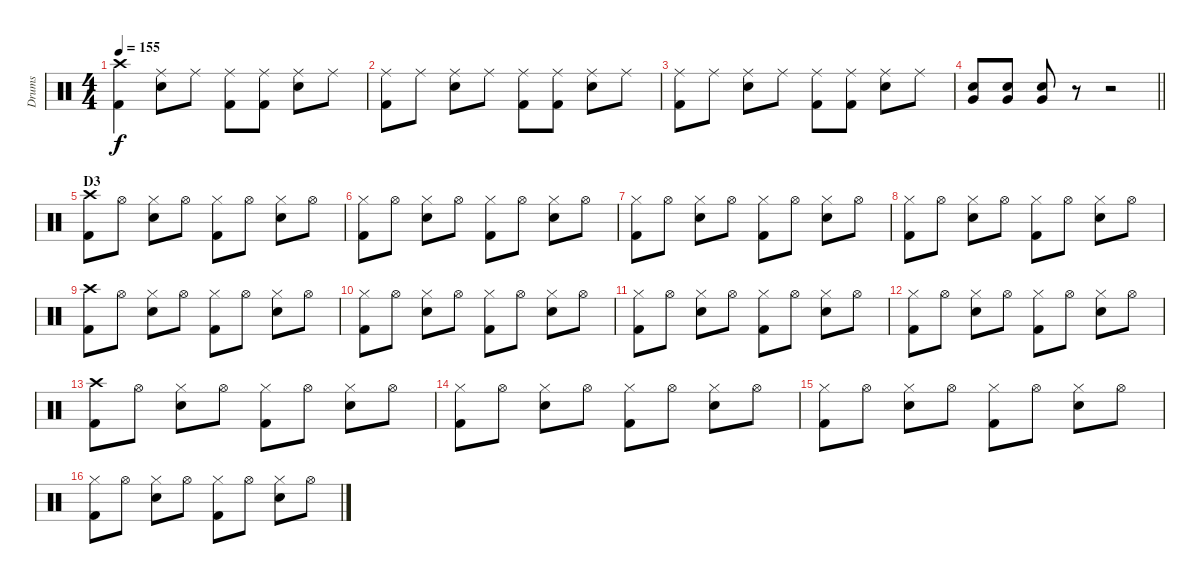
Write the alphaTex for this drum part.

\track ("Drums" "Drums") {instrument percussion}
\staff {score}
\articulation defaults
\ts (4 4)
\tempo 155
\clef neutral
\ks c
("Crash high (hit)" "Kick (hit) 2").4{dy f} ("Ride (middle)" "Snare (hit) 2").8 "Ride (middle)".8 ("Ride (middle)" "Kick (hit) 2").8 ("Ride (middle)" "Kick (hit) 2").8 ("Ride (middle)" "Snare (hit) 2").8 "Ride (middle)".8 |
("Ride (middle)" "Kick (hit) 2").8 "Ride (middle)".8 ("Ride (middle)" "Snare (hit) 2").8 "Ride (middle)".8 ("Ride (middle)" "Kick (hit) 2").8 ("Ride (middle)" "Kick (hit) 2").8 ("Ride (middle)" "Snare (hit) 2").8 "Ride (middle)".8 |
("Ride (middle)" "Kick (hit) 2").8 "Ride (middle)".8 ("Ride (middle)" "Snare (hit) 2").8 "Ride (middle)".8 ("Ride (middle)" "Kick (hit) 2").8 ("Ride (middle)" "Kick (hit) 2").8 ("Ride (middle)" "Snare (hit) 2").8 "Ride (middle)".8 |
\barLineRight lightlight
("Snare (hit) 2" "Very Low Tom (hit)").8 ("Snare (hit) 2" "Very Low Tom (hit)").8 ("Snare (hit) 2" "Very Low Tom (hit)").8 r.8 r.2 |
\section ("" "D3")
("Crash high (hit)" "Kick (hit) 2").8 "Hi-Hat (open)".8 ("Hi-Hat (closed)" "Snare (hit) 2").8 "Hi-Hat (open)".8 ("Hi-Hat (closed)" "Kick (hit) 2").8 "Hi-Hat (open)".8 ("Hi-Hat (closed)" "Snare (hit) 2").8 "Hi-Hat (open)".8 |
("Hi-Hat (closed)" "Kick (hit) 2").8 "Hi-Hat (open)".8 ("Hi-Hat (closed)" "Snare (hit) 2").8 "Hi-Hat (open)".8 ("Hi-Hat (closed)" "Kick (hit) 2").8 "Hi-Hat (open)".8 ("Hi-Hat (closed)" "Snare (hit) 2").8 "Hi-Hat (open)".8 |
("Hi-Hat (closed)" "Kick (hit) 2").8 "Hi-Hat (open)".8 ("Hi-Hat (closed)" "Snare (hit) 2").8 "Hi-Hat (open)".8 ("Hi-Hat (closed)" "Kick (hit) 2").8 "Hi-Hat (open)".8 ("Hi-Hat (closed)" "Snare (hit) 2").8 "Hi-Hat (open)".8 |
("Hi-Hat (closed)" "Kick (hit) 2").8 "Hi-Hat (open)".8 ("Hi-Hat (closed)" "Snare (hit) 2").8 "Hi-Hat (open)".8 ("Hi-Hat (closed)" "Kick (hit) 2").8 "Hi-Hat (open)".8 ("Hi-Hat (closed)" "Snare (hit) 2").8 "Hi-Hat (open)".8 |
("Crash high (hit)" "Kick (hit) 2").8 "Hi-Hat (open)".8 ("Hi-Hat (closed)" "Snare (hit) 2").8 "Hi-Hat (open)".8 ("Hi-Hat (closed)" "Kick (hit) 2").8 "Hi-Hat (open)".8 ("Hi-Hat (closed)" "Snare (hit) 2").8 "Hi-Hat (open)".8 |
("Hi-Hat (closed)" "Kick (hit) 2").8 "Hi-Hat (open)".8 ("Hi-Hat (closed)" "Snare (hit) 2").8 "Hi-Hat (open)".8 ("Hi-Hat (closed)" "Kick (hit) 2").8 "Hi-Hat (open)".8 ("Hi-Hat (closed)" "Snare (hit) 2").8 "Hi-Hat (open)".8 |
("Hi-Hat (closed)" "Kick (hit) 2").8 "Hi-Hat (open)".8 ("Hi-Hat (closed)" "Snare (hit) 2").8 "Hi-Hat (open)".8 ("Hi-Hat (closed)" "Kick (hit) 2").8 "Hi-Hat (open)".8 ("Hi-Hat (closed)" "Snare (hit) 2").8 "Hi-Hat (open)".8 |
("Hi-Hat (closed)" "Kick (hit) 2").8 "Hi-Hat (open)".8 ("Hi-Hat (closed)" "Snare (hit) 2").8 "Hi-Hat (open)".8 ("Hi-Hat (closed)" "Kick (hit) 2").8 "Hi-Hat (open)".8 ("Hi-Hat (closed)" "Snare (hit) 2").8 "Hi-Hat (open)".8 |
("Crash high (hit)" "Kick (hit) 2").8 "Hi-Hat (open)".8 ("Hi-Hat (closed)" "Snare (hit) 2").8 "Hi-Hat (open)".8 ("Hi-Hat (closed)" "Kick (hit) 2").8 "Hi-Hat (open)".8 ("Hi-Hat (closed)" "Snare (hit) 2").8 "Hi-Hat (open)".8 |
("Hi-Hat (closed)" "Kick (hit) 2").8 "Hi-Hat (open)".8 ("Hi-Hat (closed)" "Snare (hit) 2").8 "Hi-Hat (open)".8 ("Hi-Hat (closed)" "Kick (hit) 2").8 "Hi-Hat (open)".8 ("Hi-Hat (closed)" "Snare (hit) 2").8 "Hi-Hat (open)".8 |
("Hi-Hat (closed)" "Kick (hit) 2").8 "Hi-Hat (open)".8 ("Hi-Hat (closed)" "Snare (hit) 2").8 "Hi-Hat (open)".8 ("Hi-Hat (closed)" "Kick (hit) 2").8 "Hi-Hat (open)".8 ("Hi-Hat (closed)" "Snare (hit) 2").8 "Hi-Hat (open)".8 |
("Hi-Hat (closed)" "Kick (hit) 2").8 "Hi-Hat (open)".8 ("Hi-Hat (closed)" "Snare (hit) 2").8 "Hi-Hat (open)".8 ("Hi-Hat (closed)" "Kick (hit) 2").8 "Hi-Hat (open)".8 ("Hi-Hat (closed)" "Snare (hit) 2").8 "Hi-Hat (open)".8
